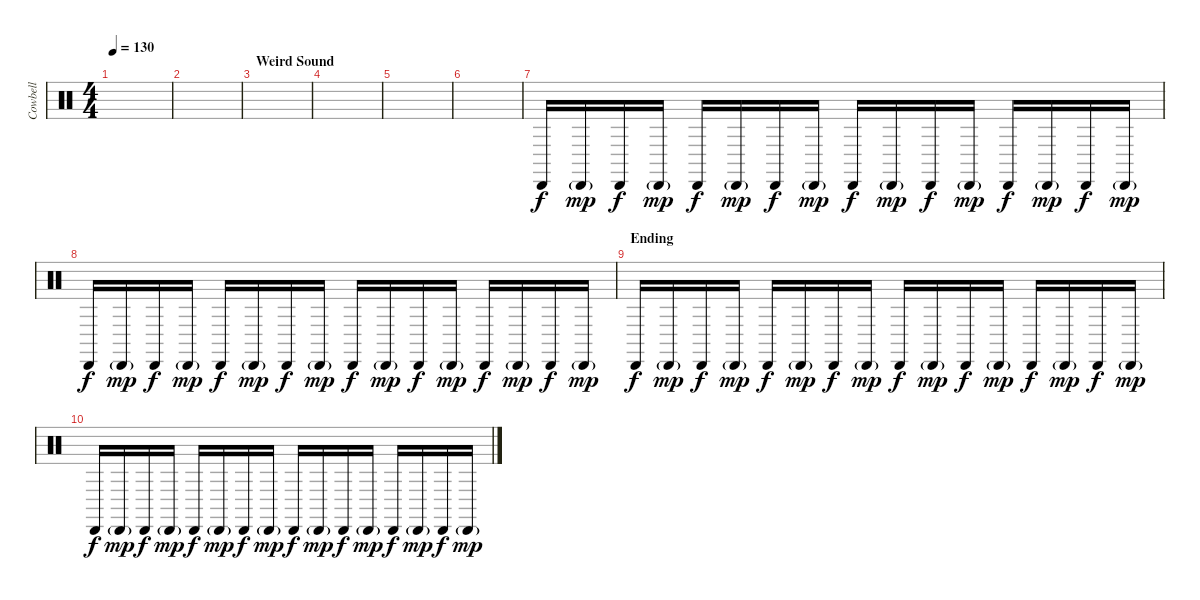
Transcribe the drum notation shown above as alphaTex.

\track ("Cowbell" "Cowbell") {instrument percussion}
\staff {score}
\articulation defaults
\ts (4 4)
\tempo 130
\clef neutral
\ks c
|
|
\section ("" "Weird Sound")
|
|
|
|
"Cabasa (hit)".16 "Cabasa (hit)"{g}.16{dy mp} "Cabasa (hit)".16{dy f} "Cabasa (hit)"{g}.16{dy mp} "Cabasa (hit)".16{dy f} "Cabasa (hit)"{g}.16{dy mp} "Cabasa (hit)".16{dy f} "Cabasa (hit)"{g}.16{dy mp} "Cabasa (hit)".16{dy f} "Cabasa (hit)"{g}.16{dy mp} "Cabasa (hit)".16{dy f} "Cabasa (hit)"{g}.16{dy mp} "Cabasa (hit)".16{dy f} "Cabasa (hit)"{g}.16{dy mp} "Cabasa (hit)".16{dy f} "Cabasa (hit)"{g}.16{dy mp} |
"Cabasa (hit)".16{dy f} "Cabasa (hit)"{g}.16{dy mp} "Cabasa (hit)".16{dy f} "Cabasa (hit)"{g}.16{dy mp} "Cabasa (hit)".16{dy f} "Cabasa (hit)"{g}.16{dy mp} "Cabasa (hit)".16{dy f} "Cabasa (hit)"{g}.16{dy mp} "Cabasa (hit)".16{dy f} "Cabasa (hit)"{g}.16{dy mp} "Cabasa (hit)".16{dy f} "Cabasa (hit)"{g}.16{dy mp} "Cabasa (hit)".16{dy f} "Cabasa (hit)"{g}.16{dy mp} "Cabasa (hit)".16{dy f} "Cabasa (hit)"{g}.16{dy mp} |
\section ("" "Ending")
"Cabasa (hit)".16{dy f} "Cabasa (hit)"{g}.16{dy mp} "Cabasa (hit)".16{dy f} "Cabasa (hit)"{g}.16{dy mp} "Cabasa (hit)".16{dy f} "Cabasa (hit)"{g}.16{dy mp} "Cabasa (hit)".16{dy f} "Cabasa (hit)"{g}.16{dy mp} "Cabasa (hit)".16{dy f} "Cabasa (hit)"{g}.16{dy mp} "Cabasa (hit)".16{dy f} "Cabasa (hit)"{g}.16{dy mp} "Cabasa (hit)".16{dy f} "Cabasa (hit)"{g}.16{dy mp} "Cabasa (hit)".16{dy f} "Cabasa (hit)"{g}.16{dy mp} |
"Cabasa (hit)".16{dy f} "Cabasa (hit)"{g}.16{dy mp} "Cabasa (hit)".16{dy f} "Cabasa (hit)"{g}.16{dy mp} "Cabasa (hit)".16{dy f} "Cabasa (hit)"{g}.16{dy mp} "Cabasa (hit)".16{dy f} "Cabasa (hit)"{g}.16{dy mp} "Cabasa (hit)".16{dy f} "Cabasa (hit)"{g}.16{dy mp} "Cabasa (hit)".16{dy f} "Cabasa (hit)"{g}.16{dy mp} "Cabasa (hit)".16{dy f} "Cabasa (hit)"{g}.16{dy mp} "Cabasa (hit)".16{dy f} "Cabasa (hit)"{g}.16{dy mp}
